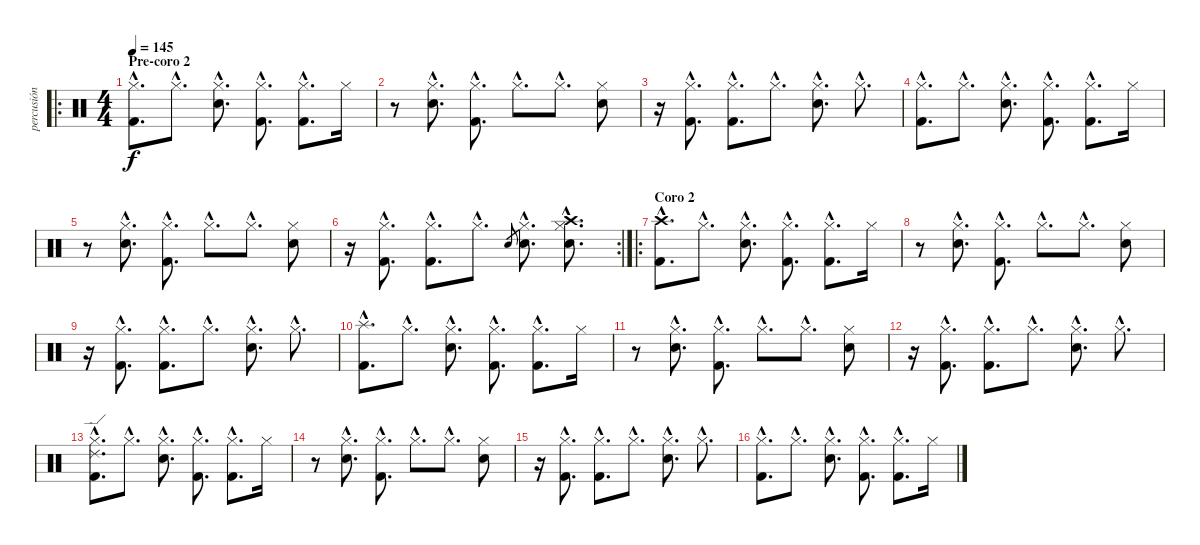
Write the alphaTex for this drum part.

\track ("percusión" "percusión") {instrument percussion}
\staff {score}
\articulation defaults
\ro
\ts (4 4)
\section ("" "Pre-coro 2")
\tempo 145
\clef neutral
\ks c
("Kick (hit) 2"{hac} "Hi-Hat (closed)"{hac}).8{d dy f} "Hi-Hat (closed)"{hac}.8{d} ("Hi-Hat (closed)"{hac} "Electric Snare (hit)"{hac}).8{d} ("Kick (hit) 2"{hac} "Hi-Hat (closed)"{hac}).8{d} ("Kick (hit) 2"{hac} "Hi-Hat (closed)"{hac}).8{d} "Hi-Hat (closed)".16 |
r.8 ("Hi-Hat (closed)"{hac} "Electric Snare (hit)"{hac}).8{d} ("Kick (hit) 2"{hac} "Hi-Hat (closed)"{hac}).8{d} "Hi-Hat (closed)"{hac}.8{d} "Hi-Hat (closed)"{hac}.8{d} ("Hi-Hat (closed)" "Electric Snare (hit)").8 |
r.16 ("Kick (hit) 2"{hac} "Hi-Hat (closed)"{hac}).8{d} ("Kick (hit) 2"{hac} "Hi-Hat (closed)"{hac}).8{d} "Hi-Hat (closed)"{hac}.8{d} ("Hi-Hat (closed)"{hac} "Electric Snare (hit)"{hac}).8{d} "Hi-Hat (closed)"{hac}.8{d} |
("Kick (hit) 2"{hac} "Hi-Hat (closed)"{hac}).8{d} "Hi-Hat (closed)"{hac}.8{d} ("Hi-Hat (closed)"{hac} "Electric Snare (hit)"{hac}).8{d} ("Kick (hit) 2"{hac} "Hi-Hat (closed)"{hac}).8{d} ("Kick (hit) 2"{hac} "Hi-Hat (closed)"{hac}).8{d} "Hi-Hat (closed)".16 |
r.8 ("Hi-Hat (closed)"{hac} "Electric Snare (hit)"{hac}).8{d} ("Kick (hit) 2"{hac} "Hi-Hat (closed)"{hac}).8{d} "Hi-Hat (closed)"{hac}.8{d} "Hi-Hat (closed)"{hac}.8{d} ("Hi-Hat (closed)" "Electric Snare (hit)").8 |
\rc 2
r.16 ("Kick (hit) 2"{hac} "Hi-Hat (closed)"{hac}).8{d} ("Kick (hit) 2"{hac} "Hi-Hat (closed)"{hac}).8{d} "Hi-Hat (closed)"{hac}.8{d} "Electric Snare (hit)".8{gr} ("Hi-Hat (closed)"{hac} "Electric Snare (hit)"{hac}).8{d} ("Hi-Hat (closed)"{hac} "Electric Snare (hit)"{hac} "Crash high (hit)"{hac}).8{d} |
\ro
\section ("" "Coro 2")
("Kick (hit) 2"{hac} "Crash high (hit)"{hac}).8{d} "Hi-Hat (closed)"{hac}.8{d} ("Hi-Hat (closed)"{hac} "Electric Snare (hit)"{hac}).8{d} ("Kick (hit) 2"{hac} "Hi-Hat (closed)"{hac}).8{d} ("Kick (hit) 2"{hac} "Hi-Hat (closed)"{hac}).8{d} "Hi-Hat (closed)".16 |
r.8 ("Hi-Hat (closed)"{hac} "Electric Snare (hit)"{hac}).8{d} ("Kick (hit) 2"{hac} "Hi-Hat (closed)"{hac}).8{d} "Hi-Hat (closed)"{hac}.8{d} "Hi-Hat (closed)"{hac}.8{d} ("Hi-Hat (closed)" "Electric Snare (hit)").8 |
r.16 ("Kick (hit) 2"{hac} "Hi-Hat (closed)"{hac}).8{d} ("Kick (hit) 2"{hac} "Hi-Hat (closed)"{hac}).8{d} "Hi-Hat (closed)"{hac}.8{d} ("Hi-Hat (closed)"{hac} "Electric Snare (hit)"{hac}).8{d} "Hi-Hat (closed)"{hac}.8{d} |
("Kick (hit) 2"{hac} "Splash (hit)"{hac}).8{d} "Hi-Hat (closed)"{hac}.8{d} ("Hi-Hat (closed)"{hac} "Electric Snare (hit)"{hac}).8{d} ("Kick (hit) 2"{hac} "Hi-Hat (closed)"{hac}).8{d} ("Kick (hit) 2"{hac} "Hi-Hat (closed)"{hac}).8{d} "Hi-Hat (closed)".16 |
r.8 ("Hi-Hat (closed)"{hac} "Electric Snare (hit)"{hac}).8{d} ("Kick (hit) 2"{hac} "Hi-Hat (closed)"{hac}).8{d} "Hi-Hat (closed)"{hac}.8{d} "Hi-Hat (closed)"{hac}.8{d} ("Hi-Hat (closed)" "Electric Snare (hit)").8 |
r.16 ("Kick (hit) 2"{hac} "Hi-Hat (closed)"{hac}).8{d} ("Kick (hit) 2"{hac} "Hi-Hat (closed)"{hac}).8{d} "Hi-Hat (closed)"{hac}.8{d} ("Hi-Hat (closed)"{hac} "Electric Snare (hit)"{hac}).8{d} "Hi-Hat (closed)"{hac}.8{d} |
("Kick (hit) 2"{hac} "Hi-Hat (closed)"{hac} "Ride (edge) 2"{hac}).8{d} "Hi-Hat (closed)"{hac}.8{d} ("Hi-Hat (closed)"{hac} "Electric Snare (hit)"{hac}).8{d} ("Kick (hit) 2"{hac} "Hi-Hat (closed)"{hac}).8{d} ("Kick (hit) 2"{hac} "Hi-Hat (closed)"{hac}).8{d} "Hi-Hat (closed)".16 |
r.8 ("Hi-Hat (closed)"{hac} "Electric Snare (hit)"{hac}).8{d} ("Kick (hit) 2"{hac} "Hi-Hat (closed)"{hac}).8{d} "Hi-Hat (closed)"{hac}.8{d} "Hi-Hat (closed)"{hac}.8{d} ("Hi-Hat (closed)" "Electric Snare (hit)").8 |
r.16 ("Kick (hit) 2"{hac} "Hi-Hat (closed)"{hac}).8{d} ("Kick (hit) 2"{hac} "Hi-Hat (closed)"{hac}).8{d} "Hi-Hat (closed)"{hac}.8{d} ("Hi-Hat (closed)"{hac} "Electric Snare (hit)"{hac}).8{d} "Hi-Hat (closed)"{hac}.8{d} |
("Kick (hit) 2"{hac} "Hi-Hat (closed)"{hac}).8{d} "Hi-Hat (closed)"{hac}.8{d} ("Hi-Hat (closed)"{hac} "Electric Snare (hit)"{hac}).8{d} ("Kick (hit) 2"{hac} "Hi-Hat (closed)"{hac}).8{d} ("Kick (hit) 2"{hac} "Hi-Hat (closed)"{hac}).8{d} "Hi-Hat (closed)".16
